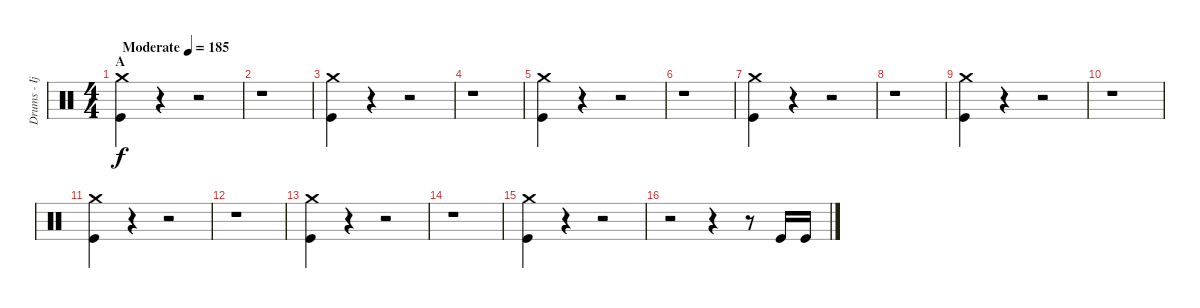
\track ("Drums - Ijichi" "Drums - Ij") {instrument percussion}
\staff {score}
\articulation defaults
\ts (4 4)
\section ("" "A")
\tempo (185 "Moderate")
\clef neutral
\ks c
("Crash medium (hit)" "Kick (hit)").4{dy f} r.4 r.2 |
r.1 |
("Crash medium (hit)" "Kick (hit)").4 r.4 r.2 |
r.1 |
("Crash medium (hit)" "Kick (hit)").4 r.4 r.2 |
r.1 |
("Crash medium (hit)" "Kick (hit)").4 r.4 r.2 |
r.1 |
("Crash medium (hit)" "Kick (hit)").4 r.4 r.2 |
r.1 |
("Crash medium (hit)" "Kick (hit)").4 r.4 r.2 |
r.1 |
("Crash medium (hit)" "Kick (hit)").4 r.4 r.2 |
r.1 |
("Crash medium (hit)" "Kick (hit)").4 r.4 r.2 |
r.2 r.4 r.8 "Kick (hit)".16 "Kick (hit)".16
